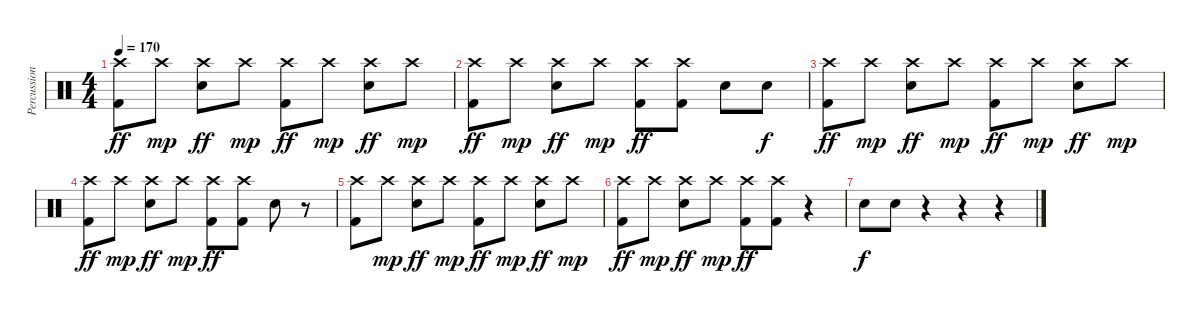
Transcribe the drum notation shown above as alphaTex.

\track ("Percussion" "Percussion") {instrument percussion}
\staff {score}
\articulation defaults
\ts (4 4)
\tempo 170
\clef neutral
\ks c
("Crash high (hit)" "Kick (hit) 2").8{dy ff} "Crash high (hit)".8{dy mp} ("Crash high (hit)" "Electric Snare (hit)").8{dy ff} "Crash high (hit)".8{dy mp} ("Crash high (hit)" "Kick (hit) 2").8{dy ff} "Crash high (hit)".8{dy mp} ("Crash high (hit)" "Electric Snare (hit)").8{dy ff} "Crash high (hit)".8{dy mp} |
("Crash high (hit)" "Kick (hit) 2").8{dy ff} "Crash high (hit)".8{dy mp} ("Crash high (hit)" "Electric Snare (hit)").8{dy ff} "Crash high (hit)".8{dy mp} ("Crash high (hit)" "Kick (hit) 2").8{dy ff} ("Crash high (hit)" "Kick (hit) 2").8 "Electric Snare (hit)".8 "Electric Snare (hit)".8{dy f} |
("Crash high (hit)" "Kick (hit) 2").8{dy ff} "Crash high (hit)".8{dy mp} ("Crash high (hit)" "Electric Snare (hit)").8{dy ff} "Crash high (hit)".8{dy mp} ("Crash high (hit)" "Kick (hit) 2").8{dy ff} "Crash high (hit)".8{dy mp} ("Crash high (hit)" "Electric Snare (hit)").8{dy ff} "Crash high (hit)".8{dy mp} |
("Crash high (hit)" "Kick (hit) 2").8{dy ff} "Crash high (hit)".8{dy mp} ("Crash high (hit)" "Electric Snare (hit)").8{dy ff} "Crash high (hit)".8{dy mp} ("Crash high (hit)" "Kick (hit) 2").8{dy ff} ("Crash high (hit)" "Kick (hit) 2").8 "Electric Snare (hit)".8 r.8 |
("Crash high (hit)" "Kick (hit) 2").8 "Crash high (hit)".8{dy mp} ("Crash high (hit)" "Electric Snare (hit)").8{dy ff} "Crash high (hit)".8{dy mp} ("Crash high (hit)" "Kick (hit) 2").8{dy ff} "Crash high (hit)".8{dy mp} ("Crash high (hit)" "Electric Snare (hit)").8{dy ff} "Crash high (hit)".8{dy mp} |
("Crash high (hit)" "Kick (hit) 2").8{dy ff} "Crash high (hit)".8{dy mp} ("Crash high (hit)" "Electric Snare (hit)").8{dy ff} "Crash high (hit)".8{dy mp} ("Crash high (hit)" "Kick (hit) 2").8{dy ff} ("Crash high (hit)" "Kick (hit) 2").8 r.4 |
"Electric Snare (hit)".8{dy f} "Electric Snare (hit)".8 r.4 r.4 r.4
